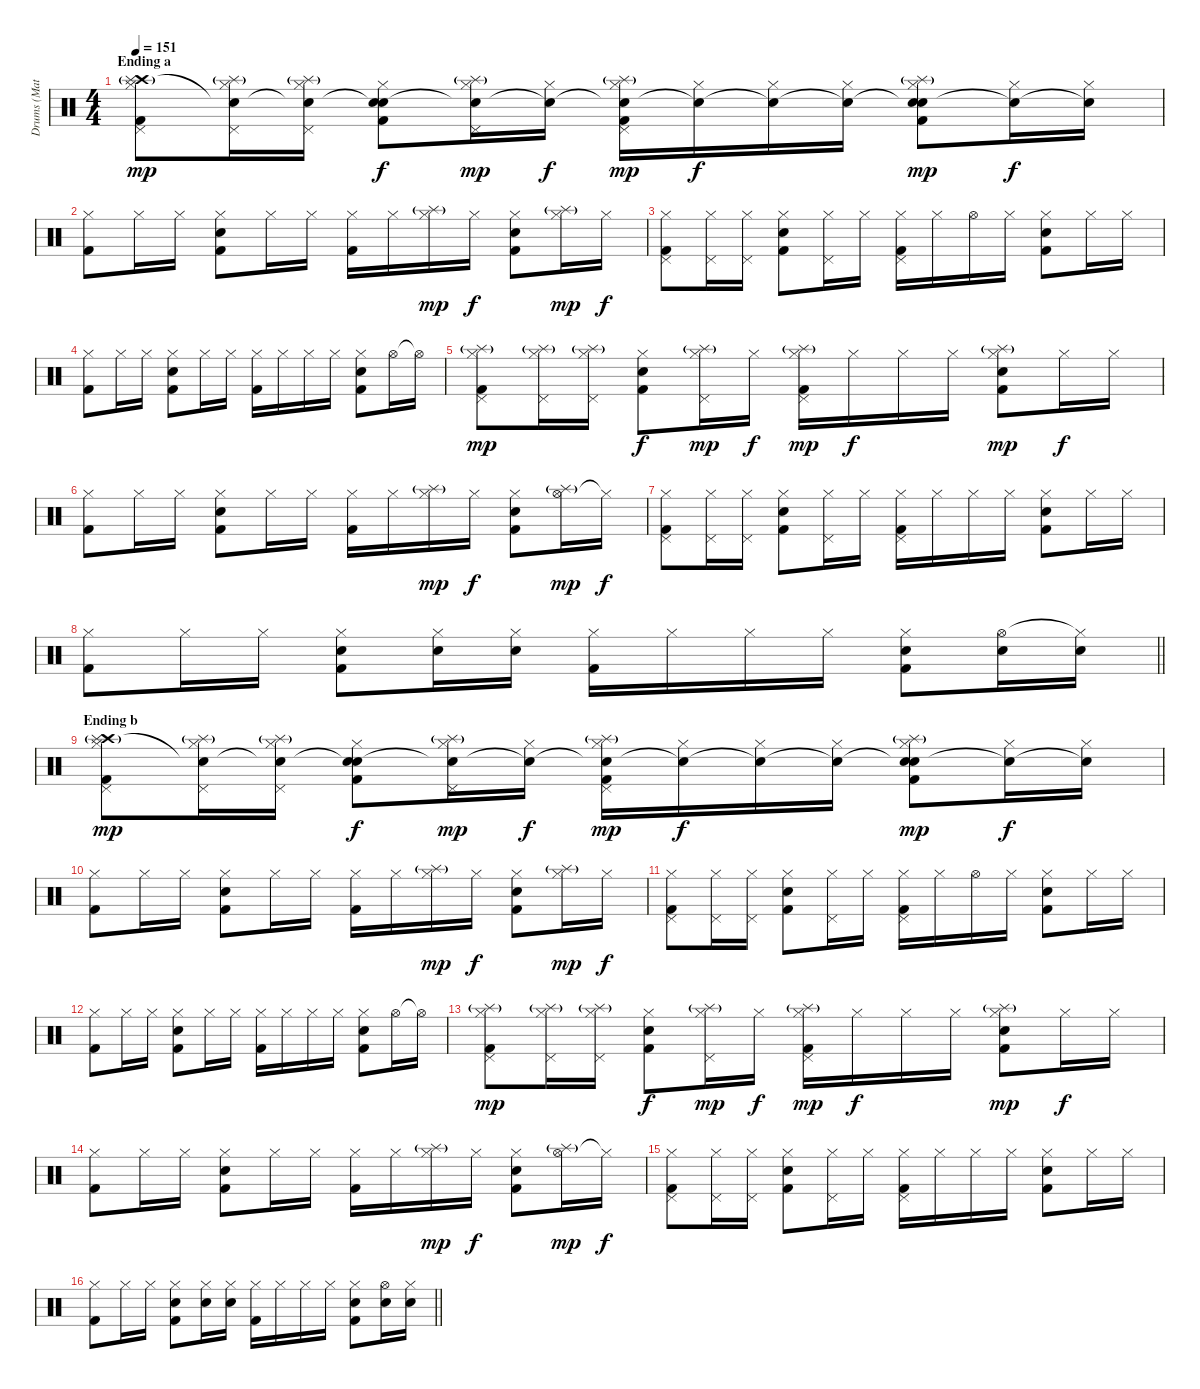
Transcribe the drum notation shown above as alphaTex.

\track ("Drums (Matt Tong)" "Drums (Mat") {instrument percussion}
\staff {score}
\articulation defaults
\ts (4 4)
\section ("" "Ending a")
\tempo 151
\clef neutral
\ks c
("Hi-Hat (closed)" "Crash high (hit)" "Splash (hit)"{g} "Pedal Hi-Hat (hit)" "Kick (hit) 2").8{dy mp volume 16} ("Hi-Hat (closed)" "Snare (hit)"{t} "Splash (hit)"{g} "Pedal Hi-Hat (hit)").16 ("Hi-Hat (closed)" "Snare (hit)"{t} "Splash (hit)"{g} "Pedal Hi-Hat (hit)").16 ("Hi-Hat (closed)" "Snare (hit)"{t} "Electric Snare (hit)" "Kick (hit) 2").8{dy f} ("Hi-Hat (closed)" "Snare (hit)"{t} "Splash (hit)"{g} "Pedal Hi-Hat (hit)").16{dy mp} ("Hi-Hat (closed)" "Snare (hit)"{t}).16{dy f} ("Hi-Hat (closed)" "Snare (hit)"{t} "Splash (hit)"{g} "Pedal Hi-Hat (hit)" "Kick (hit) 2").16{dy mp} ("Hi-Hat (closed)" "Snare (hit)"{t}).16{dy f} ("Hi-Hat (closed)" "Snare (hit)"{t}).16 ("Hi-Hat (closed)" "Snare (hit)"{t}).16 ("Hi-Hat (closed)" "Snare (hit)"{t} "Splash (hit)"{g} "Electric Snare (hit)" "Kick (hit) 2").8{dy mp} ("Hi-Hat (closed)" "Snare (hit)"{t}).16{dy f} ("Hi-Hat (closed)" "Snare (hit)"{t}).16 |
("Hi-Hat (closed)" "Kick (hit) 2").8 "Hi-Hat (closed)".16 "Hi-Hat (closed)".16 ("Hi-Hat (closed)" "Electric Snare (hit)" "Kick (hit) 2").8 "Hi-Hat (closed)".16 "Hi-Hat (closed)".16 ("Hi-Hat (closed)" "Kick (hit) 2").16 "Hi-Hat (closed)".16 ("Hi-Hat (closed)" "Splash (hit)"{g}).16{dy mp} "Hi-Hat (closed)".16{dy f} ("Hi-Hat (closed)" "Electric Snare (hit)" "Kick (hit) 2").8 ("Hi-Hat (closed)" "Splash (hit)"{g}).16{dy mp} "Hi-Hat (closed)".16{dy f} |
("Hi-Hat (closed)" "Pedal Hi-Hat (hit)" "Kick (hit) 2").8 ("Hi-Hat (closed)" "Pedal Hi-Hat (hit)").16 ("Hi-Hat (closed)" "Pedal Hi-Hat (hit)").16 ("Hi-Hat (closed)" "Electric Snare (hit)" "Kick (hit) 2").8 ("Hi-Hat (closed)" "Pedal Hi-Hat (hit)").16 "Hi-Hat (closed)".16 ("Hi-Hat (closed)" "Pedal Hi-Hat (hit)" "Kick (hit) 2").16 "Hi-Hat (closed)".16 "Hi-Hat (open)".16 "Hi-Hat (closed)".16 ("Hi-Hat (closed)" "Electric Snare (hit)" "Kick (hit) 2").8 "Hi-Hat (closed)".16 "Hi-Hat (closed)".16 |
("Hi-Hat (closed)" "Kick (hit) 2").8 "Hi-Hat (closed)".16 "Hi-Hat (closed)".16 ("Hi-Hat (closed)" "Electric Snare (hit)" "Kick (hit) 2").8 "Hi-Hat (closed)".16 "Hi-Hat (closed)".16 ("Hi-Hat (closed)" "Kick (hit) 2").16 "Hi-Hat (closed)".16 "Hi-Hat (closed)".16 "Hi-Hat (closed)".16 ("Hi-Hat (closed)" "Electric Snare (hit)" "Kick (hit) 2").8 "Hi-Hat (open)".16 "Hi-Hat (open)"{t}.16 |
("Hi-Hat (closed)" "Splash (hit)"{g} "Pedal Hi-Hat (hit)" "Kick (hit) 2").8{dy mp} ("Hi-Hat (closed)" "Splash (hit)"{g} "Pedal Hi-Hat (hit)").16 ("Hi-Hat (closed)" "Splash (hit)"{g} "Pedal Hi-Hat (hit)").16 ("Hi-Hat (closed)" "Electric Snare (hit)" "Kick (hit) 2").8{dy f} ("Hi-Hat (closed)" "Splash (hit)"{g} "Pedal Hi-Hat (hit)").16{dy mp} "Hi-Hat (closed)".16{dy f} ("Hi-Hat (closed)" "Splash (hit)"{g} "Pedal Hi-Hat (hit)" "Kick (hit) 2").16{dy mp} "Hi-Hat (closed)".16{dy f} "Hi-Hat (closed)".16 "Hi-Hat (closed)".16 ("Hi-Hat (closed)" "Splash (hit)"{g} "Electric Snare (hit)" "Kick (hit) 2").8{dy mp} "Hi-Hat (closed)".16{dy f} "Hi-Hat (closed)".16 |
("Hi-Hat (closed)" "Kick (hit) 2").8 "Hi-Hat (closed)".16 "Hi-Hat (closed)".16 ("Hi-Hat (closed)" "Electric Snare (hit)" "Kick (hit) 2").8 "Hi-Hat (closed)".16 "Hi-Hat (closed)".16 ("Hi-Hat (closed)" "Kick (hit) 2").16 "Hi-Hat (closed)".16 ("Hi-Hat (closed)" "Splash (hit)"{g}).16{dy mp} "Hi-Hat (closed)".16{dy f} ("Hi-Hat (closed)" "Electric Snare (hit)" "Kick (hit) 2").8 ("Hi-Hat (open)" "Splash (hit)"{g}).16{dy mp} "Hi-Hat (closed)"{t}.16{dy f} |
("Hi-Hat (closed)" "Pedal Hi-Hat (hit)" "Kick (hit) 2").8 ("Hi-Hat (closed)" "Pedal Hi-Hat (hit)").16 ("Hi-Hat (closed)" "Pedal Hi-Hat (hit)").16 ("Hi-Hat (closed)" "Electric Snare (hit)" "Kick (hit) 2").8 ("Hi-Hat (closed)" "Pedal Hi-Hat (hit)").16 "Hi-Hat (closed)".16 ("Hi-Hat (closed)" "Pedal Hi-Hat (hit)" "Kick (hit) 2").16 "Hi-Hat (closed)".16 "Hi-Hat (closed)".16 "Hi-Hat (closed)".16 ("Hi-Hat (closed)" "Electric Snare (hit)" "Kick (hit) 2").8 "Hi-Hat (closed)".16 "Hi-Hat (closed)".16 |
\barLineRight lightlight
("Hi-Hat (closed)" "Kick (hit) 2").8 "Hi-Hat (closed)".16 "Hi-Hat (closed)".16 ("Hi-Hat (closed)" "Electric Snare (hit)" "Kick (hit) 2").8 ("Hi-Hat (closed)" "Electric Snare (hit)").16 ("Hi-Hat (closed)" "Electric Snare (hit)").16 ("Hi-Hat (closed)" "Kick (hit) 2").16 "Hi-Hat (closed)".16 "Hi-Hat (closed)".16 "Hi-Hat (closed)".16 ("Hi-Hat (closed)" "Electric Snare (hit)" "Kick (hit) 2").8 ("Hi-Hat (open)" "Electric Snare (hit)").16 ("Hi-Hat (closed)"{t} "Electric Snare (hit)").16 |
\section ("" "Ending b")
("Hi-Hat (closed)" "Crash high (hit)" "Splash (hit)"{g} "Pedal Hi-Hat (hit)" "Kick (hit) 2").8{dy mp} ("Hi-Hat (closed)" "Snare (hit)"{t} "Splash (hit)"{g} "Pedal Hi-Hat (hit)").16 ("Hi-Hat (closed)" "Snare (hit)"{t} "Splash (hit)"{g} "Pedal Hi-Hat (hit)").16 ("Hi-Hat (closed)" "Snare (hit)"{t} "Electric Snare (hit)" "Kick (hit) 2").8{dy f} ("Hi-Hat (closed)" "Snare (hit)"{t} "Splash (hit)"{g} "Pedal Hi-Hat (hit)").16{dy mp} ("Hi-Hat (closed)" "Snare (hit)"{t}).16{dy f} ("Hi-Hat (closed)" "Snare (hit)"{t} "Splash (hit)"{g} "Pedal Hi-Hat (hit)" "Kick (hit) 2").16{dy mp} ("Hi-Hat (closed)" "Snare (hit)"{t}).16{dy f} ("Hi-Hat (closed)" "Snare (hit)"{t}).16 ("Hi-Hat (closed)" "Snare (hit)"{t}).16 ("Hi-Hat (closed)" "Snare (hit)"{t} "Splash (hit)"{g} "Electric Snare (hit)" "Kick (hit) 2").8{dy mp} ("Hi-Hat (closed)" "Snare (hit)"{t}).16{dy f} ("Hi-Hat (closed)" "Snare (hit)"{t}).16 |
("Hi-Hat (closed)" "Kick (hit) 2").8 "Hi-Hat (closed)".16 "Hi-Hat (closed)".16 ("Hi-Hat (closed)" "Electric Snare (hit)" "Kick (hit) 2").8 "Hi-Hat (closed)".16 "Hi-Hat (closed)".16 ("Hi-Hat (closed)" "Kick (hit) 2").16 "Hi-Hat (closed)".16 ("Hi-Hat (closed)" "Splash (hit)"{g}).16{dy mp} "Hi-Hat (closed)".16{dy f} ("Hi-Hat (closed)" "Electric Snare (hit)" "Kick (hit) 2").8 ("Hi-Hat (closed)" "Splash (hit)"{g}).16{dy mp} "Hi-Hat (closed)".16{dy f} |
("Hi-Hat (closed)" "Pedal Hi-Hat (hit)" "Kick (hit) 2").8 ("Hi-Hat (closed)" "Pedal Hi-Hat (hit)").16 ("Hi-Hat (closed)" "Pedal Hi-Hat (hit)").16 ("Hi-Hat (closed)" "Electric Snare (hit)" "Kick (hit) 2").8 ("Hi-Hat (closed)" "Pedal Hi-Hat (hit)").16 "Hi-Hat (closed)".16 ("Hi-Hat (closed)" "Pedal Hi-Hat (hit)" "Kick (hit) 2").16 "Hi-Hat (closed)".16 "Hi-Hat (open)".16 "Hi-Hat (closed)".16 ("Hi-Hat (closed)" "Electric Snare (hit)" "Kick (hit) 2").8 "Hi-Hat (closed)".16 "Hi-Hat (closed)".16 |
("Hi-Hat (closed)" "Kick (hit) 2").8 "Hi-Hat (closed)".16 "Hi-Hat (closed)".16 ("Hi-Hat (closed)" "Electric Snare (hit)" "Kick (hit) 2").8 "Hi-Hat (closed)".16 "Hi-Hat (closed)".16 ("Hi-Hat (closed)" "Kick (hit) 2").16 "Hi-Hat (closed)".16 "Hi-Hat (closed)".16 "Hi-Hat (closed)".16 ("Hi-Hat (closed)" "Electric Snare (hit)" "Kick (hit) 2").8 "Hi-Hat (open)".16 "Hi-Hat (open)"{t}.16 |
("Hi-Hat (closed)" "Splash (hit)"{g} "Pedal Hi-Hat (hit)" "Kick (hit) 2").8{dy mp} ("Hi-Hat (closed)" "Splash (hit)"{g} "Pedal Hi-Hat (hit)").16 ("Hi-Hat (closed)" "Splash (hit)"{g} "Pedal Hi-Hat (hit)").16 ("Hi-Hat (closed)" "Electric Snare (hit)" "Kick (hit) 2").8{dy f} ("Hi-Hat (closed)" "Splash (hit)"{g} "Pedal Hi-Hat (hit)").16{dy mp} "Hi-Hat (closed)".16{dy f} ("Hi-Hat (closed)" "Splash (hit)"{g} "Pedal Hi-Hat (hit)" "Kick (hit) 2").16{dy mp} "Hi-Hat (closed)".16{dy f} "Hi-Hat (closed)".16 "Hi-Hat (closed)".16 ("Hi-Hat (closed)" "Splash (hit)"{g} "Electric Snare (hit)" "Kick (hit) 2").8{dy mp} "Hi-Hat (closed)".16{dy f} "Hi-Hat (closed)".16 |
("Hi-Hat (closed)" "Kick (hit) 2").8 "Hi-Hat (closed)".16 "Hi-Hat (closed)".16 ("Hi-Hat (closed)" "Electric Snare (hit)" "Kick (hit) 2").8 "Hi-Hat (closed)".16 "Hi-Hat (closed)".16 ("Hi-Hat (closed)" "Kick (hit) 2").16 "Hi-Hat (closed)".16 ("Hi-Hat (closed)" "Splash (hit)"{g}).16{dy mp} "Hi-Hat (closed)".16{dy f} ("Hi-Hat (closed)" "Electric Snare (hit)" "Kick (hit) 2").8 ("Hi-Hat (open)" "Splash (hit)"{g}).16{dy mp} "Hi-Hat (closed)"{t}.16{dy f} |
("Hi-Hat (closed)" "Pedal Hi-Hat (hit)" "Kick (hit) 2").8 ("Hi-Hat (closed)" "Pedal Hi-Hat (hit)").16 ("Hi-Hat (closed)" "Pedal Hi-Hat (hit)").16 ("Hi-Hat (closed)" "Electric Snare (hit)" "Kick (hit) 2").8 ("Hi-Hat (closed)" "Pedal Hi-Hat (hit)").16 "Hi-Hat (closed)".16 ("Hi-Hat (closed)" "Pedal Hi-Hat (hit)" "Kick (hit) 2").16 "Hi-Hat (closed)".16 "Hi-Hat (closed)".16 "Hi-Hat (closed)".16 ("Hi-Hat (closed)" "Electric Snare (hit)" "Kick (hit) 2").8 "Hi-Hat (closed)".16 "Hi-Hat (closed)".16 |
\barLineRight lightlight
("Hi-Hat (closed)" "Kick (hit) 2").8 "Hi-Hat (closed)".16 "Hi-Hat (closed)".16 ("Hi-Hat (closed)" "Electric Snare (hit)" "Kick (hit) 2").8 ("Hi-Hat (closed)" "Electric Snare (hit)").16 ("Hi-Hat (closed)" "Electric Snare (hit)").16 ("Hi-Hat (closed)" "Kick (hit) 2").16 "Hi-Hat (closed)".16 "Hi-Hat (closed)".16 "Hi-Hat (closed)".16 ("Hi-Hat (closed)" "Electric Snare (hit)" "Kick (hit) 2").8 ("Hi-Hat (open)" "Electric Snare (hit)").16 ("Hi-Hat (closed)" "Electric Snare (hit)").16
